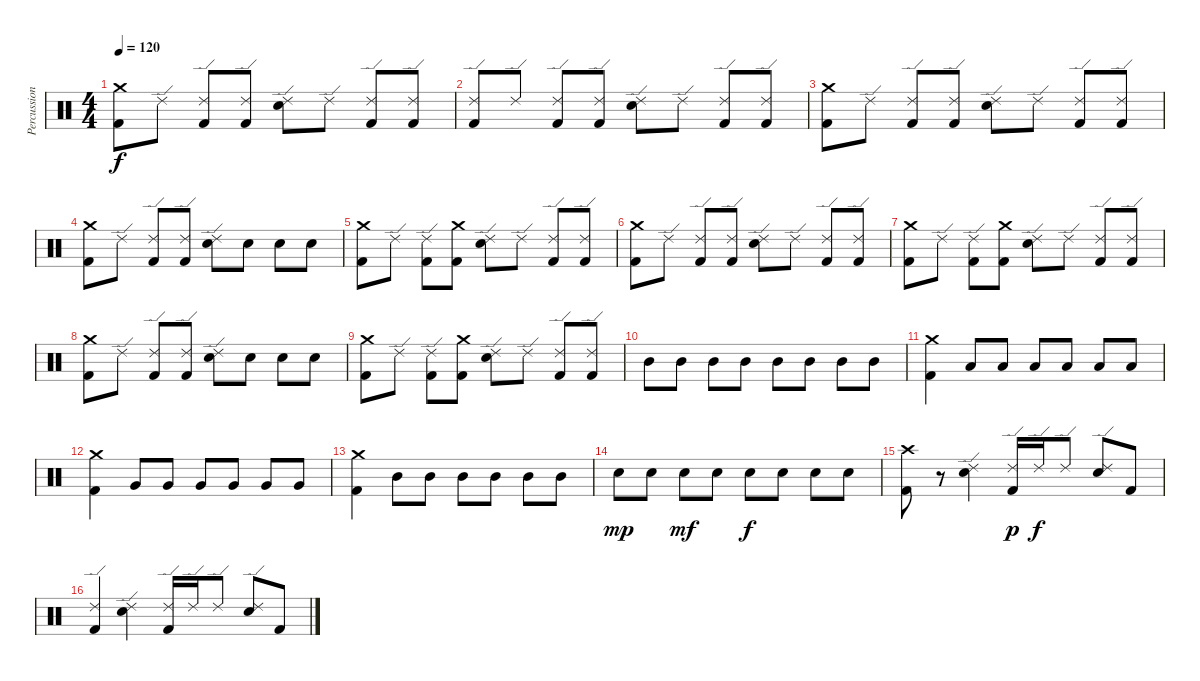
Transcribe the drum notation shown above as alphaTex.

\track ("Percussion" "Percussion") {instrument percussion}
\staff {score}
\articulation defaults
\ts (4 4)
\tempo 120
\clef neutral
\ks c
("Crash medium (hit)" "Kick (hit) 2").8{dy f} "Ride (edge) 2".8 ("Ride (edge) 2" "Kick (hit) 2").8 ("Ride (edge) 2" "Kick (hit) 2").8 ("Ride (edge) 2" "Snare (hit) 2").8 "Ride (edge) 2".8 ("Ride (edge) 2" "Kick (hit) 2").8 ("Ride (edge) 2" "Kick (hit) 2").8 |
("Ride (edge) 2" "Kick (hit) 2").8 "Ride (edge) 2".8 ("Ride (edge) 2" "Kick (hit) 2").8 ("Ride (edge) 2" "Kick (hit) 2").8 ("Ride (edge) 2" "Snare (hit) 2").8 "Ride (edge) 2".8 ("Ride (edge) 2" "Kick (hit) 2").8 ("Ride (edge) 2" "Kick (hit) 2").8 |
("Crash medium (hit)" "Kick (hit) 2").8 "Ride (edge) 2".8 ("Ride (edge) 2" "Kick (hit) 2").8 ("Ride (edge) 2" "Kick (hit) 2").8 ("Ride (edge) 2" "Snare (hit) 2").8 "Ride (edge) 2".8 ("Ride (edge) 2" "Kick (hit) 2").8 ("Ride (edge) 2" "Kick (hit) 2").8 |
("Crash medium (hit)" "Kick (hit) 2").8 "Ride (edge) 2".8 ("Ride (edge) 2" "Kick (hit) 2").8 ("Ride (edge) 2" "Kick (hit) 2").8 ("Ride (edge) 2" "Snare (hit) 2").8 "Snare (hit) 2".8 "Snare (hit) 2".8 "Snare (hit) 2".8 |
("Crash medium (hit)" "Kick (hit) 2").8 "Ride (edge) 2".8 ("Ride (edge) 2" "Kick (hit) 2").8 ("Crash medium (hit)" "Kick (hit) 2").8 ("Ride (edge) 2" "Snare (hit) 2").8 "Ride (edge) 2".8 ("Ride (edge) 2" "Kick (hit) 2").8 ("Ride (edge) 2" "Kick (hit) 2").8 |
("Crash medium (hit)" "Kick (hit) 2").8 "Ride (edge) 2".8 ("Ride (edge) 2" "Kick (hit) 2").8 ("Ride (edge) 2" "Kick (hit) 2").8 ("Ride (edge) 2" "Snare (hit) 2").8 "Ride (edge) 2".8 ("Ride (edge) 2" "Kick (hit) 2").8 ("Ride (edge) 2" "Kick (hit) 2").8 |
("Crash medium (hit)" "Kick (hit) 2").8 "Ride (edge) 2".8 ("Ride (edge) 2" "Kick (hit) 2").8 ("Crash medium (hit)" "Kick (hit) 2").8 ("Ride (edge) 2" "Snare (hit) 2").8 "Ride (edge) 2".8 ("Ride (edge) 2" "Kick (hit) 2").8 ("Ride (edge) 2" "Kick (hit) 2").8 |
("Crash medium (hit)" "Kick (hit) 2").8 "Ride (edge) 2".8 ("Ride (edge) 2" "Kick (hit) 2").8 ("Ride (edge) 2" "Kick (hit) 2").8 ("Ride (edge) 2" "Snare (hit) 2").8 "Snare (hit) 2".8 "Snare (hit) 2".8 "Snare (hit) 2".8 |
("Crash medium (hit)" "Kick (hit) 2").8 "Ride (edge) 2".8 ("Ride (edge) 2" "Kick (hit) 2").8 ("Crash medium (hit)" "Kick (hit) 2").8 ("Ride (edge) 2" "Snare (hit) 2").8 "Ride (edge) 2".8 ("Ride (edge) 2" "Kick (hit) 2").8 ("Ride (edge) 2" "Kick (hit) 2").8 |
"Mid Tom (hit)".8 "Mid Tom (hit)".8 "Mid Tom (hit)".8 "Mid Tom (hit)".8 "Mid Tom (hit)".8 "Mid Tom (hit)".8 "Mid Tom (hit)".8 "Mid Tom (hit)".8 |
("Crash medium (hit)" "Kick (hit) 2").4 "Low Tom (hit)".8 "Low Tom (hit)".8 "Low Tom (hit)".8 "Low Tom (hit)".8 "Low Tom (hit)".8 "Low Tom (hit)".8 |
("Crash medium (hit)" "Kick (hit) 2").4 "Very Low Tom (hit)".8 "Very Low Tom (hit)".8 "Very Low Tom (hit)".8 "Very Low Tom (hit)".8 "Very Low Tom (hit)".8 "Very Low Tom (hit)".8 |
("Crash medium (hit)" "Kick (hit) 2").4 "Mid Tom (hit)".8 "Mid Tom (hit)".8 "Mid Tom (hit)".8 "Mid Tom (hit)".8 "Mid Tom (hit)".8 "Mid Tom (hit)".8 |
"Snare (hit) 2".8{dy mp} "Snare (hit) 2".8 "Snare (hit) 2".8{dy mf} "Snare (hit) 2".8 "Snare (hit) 2".8{dy f} "Snare (hit) 2".8 "Snare (hit) 2".8 "Snare (hit) 2".8 |
("Crash high (hit)" "Kick (hit) 2").8 r.8 ("Ride (edge) 2" "Snare (hit) 2").4 ("Ride (edge) 2" "Kick (hit) 2").16{dy p} "Ride (edge) 2".16{dy f} "Ride (edge) 2".8 ("Ride (edge) 2" "Snare (hit) 2").8 "Kick (hit) 2".8 |
("Ride (edge) 2" "Kick (hit) 2").4 ("Ride (edge) 2" "Snare (hit) 2").4 ("Ride (edge) 2" "Kick (hit) 2").16 "Ride (edge) 2".16 "Ride (edge) 2".8 ("Ride (edge) 2" "Snare (hit) 2").8 "Kick (hit) 2".8
